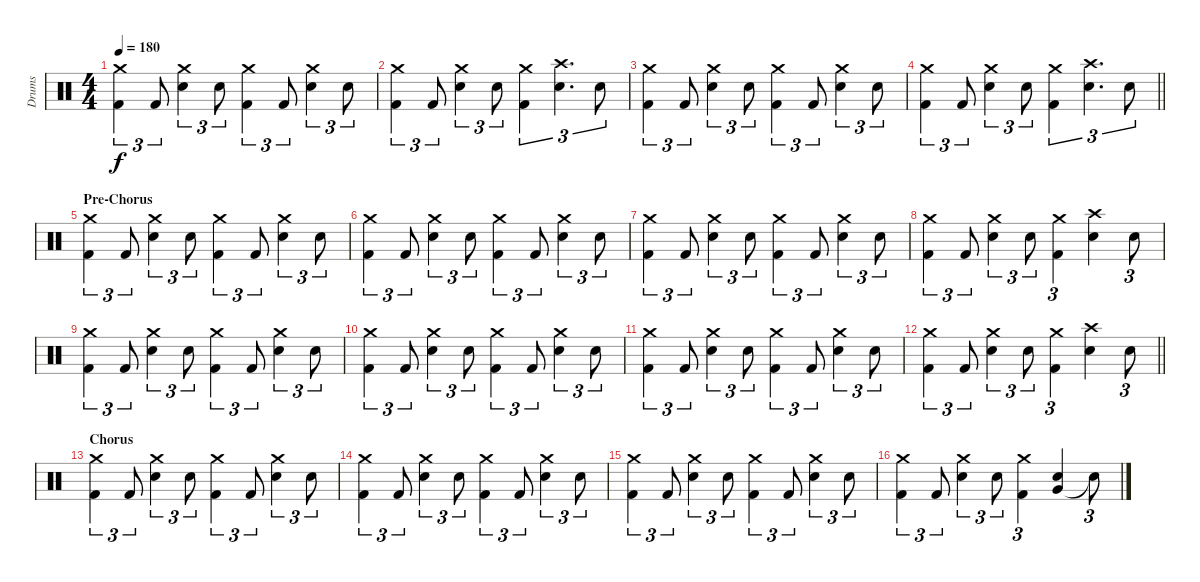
\track ("Drums" "Drums") {instrument percussion}
\staff {score}
\articulation defaults
\ts (4 4)
\tempo 180
\clef neutral
\ks c
("Crash medium (hit)" "Kick (hit) 2").4{tu (3 2) dy f} "Kick (hit) 2".8{tu (3 2)} ("Crash medium (hit)" "Electric Snare (hit)").4{tu (3 2)} "Electric Snare (hit)".8{tu (3 2)} ("Crash medium (hit)" "Kick (hit) 2").4{tu (3 2)} "Kick (hit) 2".8{tu (3 2)} ("Crash medium (hit)" "Electric Snare (hit)").4{tu (3 2)} "Electric Snare (hit)".8{tu (3 2)} |
("Crash medium (hit)" "Kick (hit) 2").4{tu (3 2)} "Kick (hit) 2".8{tu (3 2)} ("Crash medium (hit)" "Electric Snare (hit)").4{tu (3 2)} "Electric Snare (hit)".8{tu (3 2)} ("Crash medium (hit)" "Kick (hit) 2").4{tu (3 2)} ("Crash high (hit)" "Electric Snare (hit)").4{d tu (3 2)} "Electric Snare (hit)".8{tu (3 2)} |
("Crash medium (hit)" "Kick (hit) 2").4{tu (3 2)} "Kick (hit) 2".8{tu (3 2)} ("Crash medium (hit)" "Electric Snare (hit)").4{tu (3 2)} "Electric Snare (hit)".8{tu (3 2)} ("Crash medium (hit)" "Kick (hit) 2").4{tu (3 2)} "Kick (hit) 2".8{tu (3 2)} ("Crash medium (hit)" "Electric Snare (hit)").4{tu (3 2)} "Electric Snare (hit)".8{tu (3 2)} |
\barLineRight lightlight
("Crash medium (hit)" "Kick (hit) 2").4{tu (3 2)} "Kick (hit) 2".8{tu (3 2)} ("Crash medium (hit)" "Electric Snare (hit)").4{tu (3 2)} "Electric Snare (hit)".8{tu (3 2)} ("Crash medium (hit)" "Kick (hit) 2").4{tu (3 2)} ("Crash high (hit)" "Electric Snare (hit)").4{d tu (3 2)} "Electric Snare (hit)".8{tu (3 2)} |
\section ("" "Pre-Chorus")
("Crash medium (hit)" "Kick (hit) 2").4{tu (3 2)} "Kick (hit) 2".8{tu (3 2)} ("Crash medium (hit)" "Electric Snare (hit)").4{tu (3 2)} "Electric Snare (hit)".8{tu (3 2)} ("Crash medium (hit)" "Kick (hit) 2").4{tu (3 2)} "Kick (hit) 2".8{tu (3 2)} ("Crash medium (hit)" "Electric Snare (hit)").4{tu (3 2)} "Electric Snare (hit)".8{tu (3 2)} |
("Crash medium (hit)" "Kick (hit) 2").4{tu (3 2)} "Kick (hit) 2".8{tu (3 2)} ("Crash medium (hit)" "Electric Snare (hit)").4{tu (3 2)} "Electric Snare (hit)".8{tu (3 2)} ("Crash medium (hit)" "Kick (hit) 2").4{tu (3 2)} "Kick (hit) 2".8{tu (3 2)} ("Crash medium (hit)" "Electric Snare (hit)").4{tu (3 2)} "Electric Snare (hit)".8{tu (3 2)} |
("Crash medium (hit)" "Kick (hit) 2").4{tu (3 2)} "Kick (hit) 2".8{tu (3 2)} ("Crash medium (hit)" "Electric Snare (hit)").4{tu (3 2)} "Electric Snare (hit)".8{tu (3 2)} ("Crash medium (hit)" "Kick (hit) 2").4{tu (3 2)} "Kick (hit) 2".8{tu (3 2)} ("Crash medium (hit)" "Electric Snare (hit)").4{tu (3 2)} "Electric Snare (hit)".8{tu (3 2)} |
("Crash medium (hit)" "Kick (hit) 2").4{tu (3 2)} "Kick (hit) 2".8{tu (3 2)} ("Crash medium (hit)" "Electric Snare (hit)").4{tu (3 2)} "Electric Snare (hit)".8{tu (3 2)} ("Crash medium (hit)" "Kick (hit) 2").4{tu (3 2)} ("Crash high (hit)" "Electric Snare (hit)").4 "Electric Snare (hit)".8{tu (3 2)} |
("Crash medium (hit)" "Kick (hit) 2").4{tu (3 2)} "Kick (hit) 2".8{tu (3 2)} ("Crash medium (hit)" "Electric Snare (hit)").4{tu (3 2)} "Electric Snare (hit)".8{tu (3 2)} ("Crash medium (hit)" "Kick (hit) 2").4{tu (3 2)} "Kick (hit) 2".8{tu (3 2)} ("Crash medium (hit)" "Electric Snare (hit)").4{tu (3 2)} "Electric Snare (hit)".8{tu (3 2)} |
("Crash medium (hit)" "Kick (hit) 2").4{tu (3 2)} "Kick (hit) 2".8{tu (3 2)} ("Crash medium (hit)" "Electric Snare (hit)").4{tu (3 2)} "Electric Snare (hit)".8{tu (3 2)} ("Crash medium (hit)" "Kick (hit) 2").4{tu (3 2)} "Kick (hit) 2".8{tu (3 2)} ("Crash medium (hit)" "Electric Snare (hit)").4{tu (3 2)} "Electric Snare (hit)".8{tu (3 2)} |
("Crash medium (hit)" "Kick (hit) 2").4{tu (3 2)} "Kick (hit) 2".8{tu (3 2)} ("Crash medium (hit)" "Electric Snare (hit)").4{tu (3 2)} "Electric Snare (hit)".8{tu (3 2)} ("Crash medium (hit)" "Kick (hit) 2").4{tu (3 2)} "Kick (hit) 2".8{tu (3 2)} ("Crash medium (hit)" "Electric Snare (hit)").4{tu (3 2)} "Electric Snare (hit)".8{tu (3 2)} |
\barLineRight lightlight
("Crash medium (hit)" "Kick (hit) 2").4{tu (3 2)} "Kick (hit) 2".8{tu (3 2)} ("Crash medium (hit)" "Electric Snare (hit)").4{tu (3 2)} "Electric Snare (hit)".8{tu (3 2)} ("Crash medium (hit)" "Kick (hit) 2").4{tu (3 2)} ("Crash high (hit)" "Electric Snare (hit)").4 "Electric Snare (hit)".8{tu (3 2)} |
\section ("" "Chorus")
("Crash medium (hit)" "Kick (hit) 2").4{tu (3 2)} "Kick (hit) 2".8{tu (3 2)} ("Crash medium (hit)" "Electric Snare (hit)").4{tu (3 2)} "Electric Snare (hit)".8{tu (3 2)} ("Crash medium (hit)" "Kick (hit) 2").4{tu (3 2)} "Kick (hit) 2".8{tu (3 2)} ("Crash medium (hit)" "Electric Snare (hit)").4{tu (3 2)} "Electric Snare (hit)".8{tu (3 2)} |
("Crash medium (hit)" "Kick (hit) 2").4{tu (3 2)} "Kick (hit) 2".8{tu (3 2)} ("Crash medium (hit)" "Electric Snare (hit)").4{tu (3 2)} "Electric Snare (hit)".8{tu (3 2)} ("Crash medium (hit)" "Kick (hit) 2").4{tu (3 2)} "Kick (hit) 2".8{tu (3 2)} ("Crash medium (hit)" "Electric Snare (hit)").4{tu (3 2)} "Electric Snare (hit)".8{tu (3 2)} |
("Crash medium (hit)" "Kick (hit) 2").4{tu (3 2)} "Kick (hit) 2".8{tu (3 2)} ("Crash medium (hit)" "Electric Snare (hit)").4{tu (3 2)} "Electric Snare (hit)".8{tu (3 2)} ("Crash medium (hit)" "Kick (hit) 2").4{tu (3 2)} "Kick (hit) 2".8{tu (3 2)} ("Crash medium (hit)" "Electric Snare (hit)").4{tu (3 2)} "Electric Snare (hit)".8{tu (3 2)} |
("Crash medium (hit)" "Kick (hit) 2").4{tu (3 2)} "Kick (hit) 2".8{tu (3 2)} ("Crash medium (hit)" "Electric Snare (hit)").4{tu (3 2)} "Electric Snare (hit)".8{tu (3 2)} ("Crash medium (hit)" "Kick (hit) 2").4{tu (3 2)} ("Very Low Tom (hit)" "Electric Snare (hit)").4 "Snare (hit)"{t}.8{tu (3 2)}
